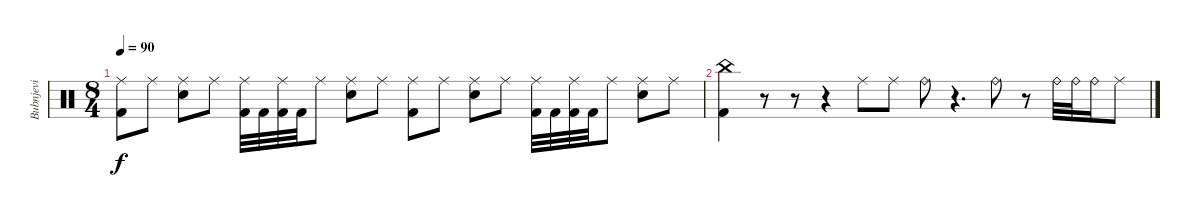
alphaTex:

\track ("Bubnjevi" "Bubnjevi") {instrument percussion}
\staff {score}
\articulation defaults
\ts (8 4)
\tempo 90
\clef neutral
\ks c
("Kick (hit) 2" "Ride (middle)").8{dy f} "Ride (middle)".8 ("Snare (hit) 2" "Ride (middle)").8 "Ride (middle)".8 ("Kick (hit) 2" "Ride (middle)").32 "Kick (hit) 2".32 ("Kick (hit) 2" "Ride (middle)").32 "Kick (hit) 2".32 "Ride (middle)".8 ("Snare (hit) 2" "Ride (middle)").8 "Ride (middle)".8 ("Kick (hit) 2" "Ride (middle)").8 "Ride (middle)".8 ("Snare (hit) 2" "Ride (middle)").8 "Ride (middle)".8 ("Kick (hit) 2" "Ride (middle)").32 "Kick (hit) 2".32 ("Kick (hit) 2" "Ride (middle)").32 "Kick (hit) 2".32 "Ride (middle)".8 ("Snare (hit) 2" "Ride (middle)").8 "Ride (middle)".8 |
("Kick (hit) 2" "China (hit)").4 r.8 r.8 r.4 "Ride (middle)".8 "Ride (middle)".8 "Ride (bell)".8 r.4{d} "Ride (bell)".8 r.8 "Ride (bell)".32 "Ride (bell)".32 "Ride (bell)".16 "Ride (middle)".8
